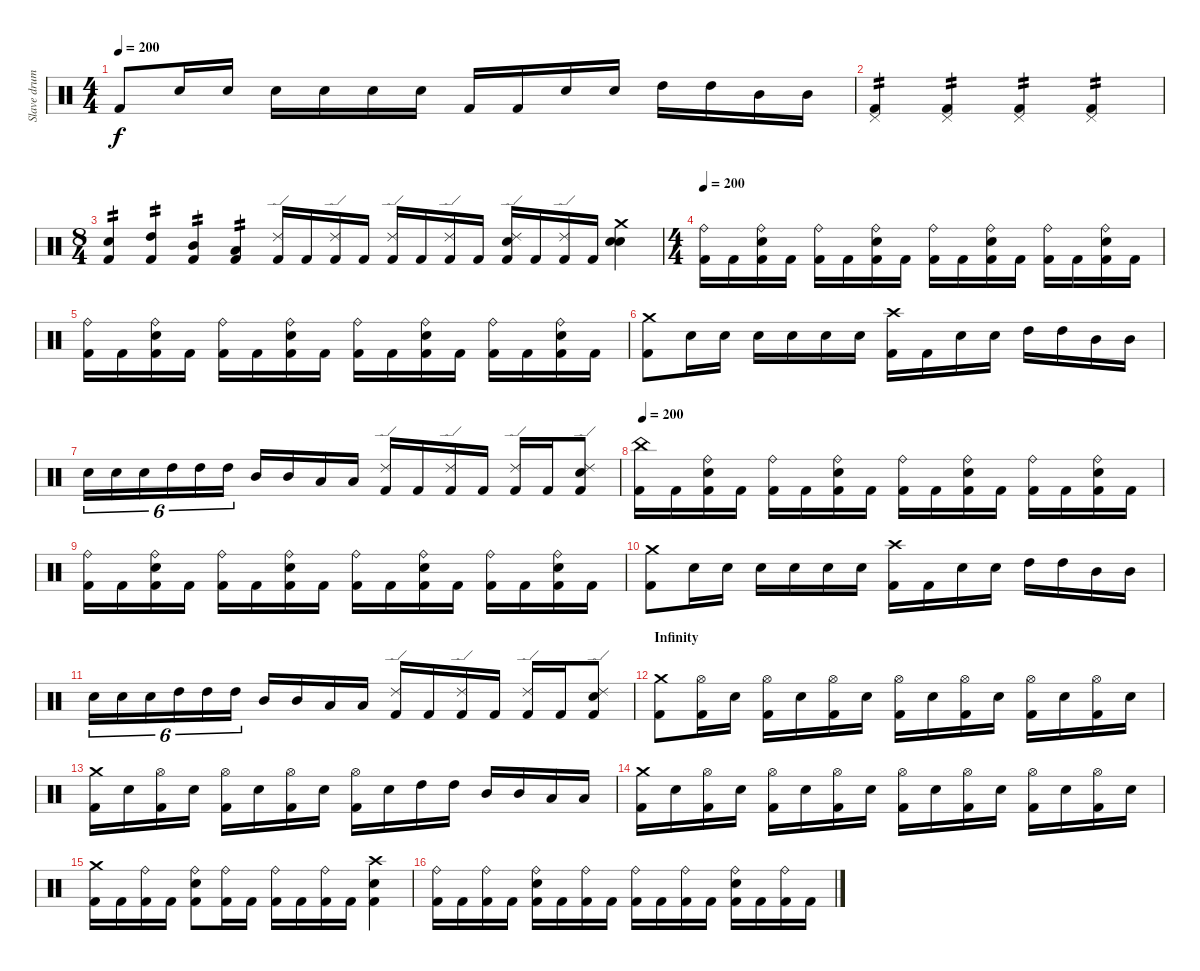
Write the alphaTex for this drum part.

\track ("Slave drum" "Slave drum") {instrument percussion}
\staff {score}
\articulation defaults
\ts (4 4)
\tempo 200
\clef neutral
\ks c "Kick (hit) 2".8{dy f} "Electric Snare (hit)".16 "Electric Snare (hit)".16 "Electric Snare (hit)".16 "Electric Snare (hit)".16 "Electric Snare (hit)".16 "Electric Snare (hit)".16 "Kick (hit) 2".16 "Kick (hit) 2".16 "Electric Snare (hit)".16 "Electric Snare (hit)".16 "High Tom (hit)".16 "High Tom (hit)".16 "Mid Tom (hit)".16 "Mid Tom (hit)".16
|
("Pedal Hi-Hat (hit)" "Kick (hit) 2").4{tp 2} ("Pedal Hi-Hat (hit)" "Kick (hit) 2").4{tp 2} ("Pedal Hi-Hat (hit)" "Kick (hit) 2").4{tp 2} ("Pedal Hi-Hat (hit)" "Kick (hit) 2").4{tp 2} |
\ts (8 4)
("Electric Snare (hit)" "Kick (hit) 2").4{tp 2} ("High Tom (hit)" "Kick (hit) 2").4{tp 2} ("Mid Tom (hit)" "Kick (hit) 2").4{tp 2} ("Low Tom (hit)" "Kick (hit) 2").4{tp 2} ("Ride (edge) 2" "Kick (hit) 2").16 "Kick (hit) 2".16 ("Ride (edge) 2" "Kick (hit) 2").16 "Kick (hit) 2".16 ("Ride (edge) 2" "Kick (hit) 2").16 "Kick (hit) 2".16 ("Ride (edge) 2" "Kick (hit) 2").16 "Kick (hit) 2".16 ("Ride (edge) 2" "Electric Snare (hit)" "Kick (hit) 2").16 "Kick (hit) 2".16 ("Ride (edge) 2" "Kick (hit) 2").16 "Kick (hit) 2".16 ("Crash medium (hit)" "Electric Snare (hit)" "Snare (hit)").4 |
\ts (4 4)
\tempo 200
("Ride (bell)" "Kick (hit) 2").16 "Kick (hit) 2".16 ("Ride (bell)" "Electric Snare (hit)" "Kick (hit) 2").16 "Kick (hit) 2".16 ("Ride (bell)" "Kick (hit) 2").16 "Kick (hit) 2".16 ("Ride (bell)" "Electric Snare (hit)" "Kick (hit) 2").16 "Kick (hit) 2".16 ("Ride (bell)" "Kick (hit) 2").16 "Kick (hit) 2".16 ("Ride (bell)" "Electric Snare (hit)" "Kick (hit) 2").16 "Kick (hit) 2".16 ("Ride (bell)" "Kick (hit) 2").16 "Kick (hit) 2".16 ("Ride (bell)" "Electric Snare (hit)" "Kick (hit) 2").16 "Kick (hit) 2".16 |
("Ride (bell)" "Kick (hit) 2").16 "Kick (hit) 2".16 ("Ride (bell)" "Electric Snare (hit)" "Kick (hit) 2").16 "Kick (hit) 2".16 ("Ride (bell)" "Kick (hit) 2").16 "Kick (hit) 2".16 ("Ride (bell)" "Electric Snare (hit)" "Kick (hit) 2").16 "Kick (hit) 2".16 ("Ride (bell)" "Kick (hit) 2").16 "Kick (hit) 2".16 ("Ride (bell)" "Electric Snare (hit)" "Kick (hit) 2").16 "Kick (hit) 2".16 ("Ride (bell)" "Kick (hit) 2").16 "Kick (hit) 2".16 ("Ride (bell)" "Electric Snare (hit)" "Kick (hit) 2").16 "Kick (hit) 2".16 |
("Crash medium (hit)" "Kick (hit) 2").8 "Electric Snare (hit)".16 "Electric Snare (hit)".16 "Electric Snare (hit)".16 "Electric Snare (hit)".16 "Electric Snare (hit)".16 "Electric Snare (hit)".16 ("Crash high (hit)" "Kick (hit) 2").16 "Kick (hit) 2".16 "Electric Snare (hit)".16 "Electric Snare (hit)".16 "High Tom (hit)".16 "High Tom (hit)".16 "Mid Tom (hit)".16 "Mid Tom (hit)".16 |
"Electric Snare (hit)".16{tu (6 4)} "Electric Snare (hit)".16{tu (6 4)} "Electric Snare (hit)".16{tu (6 4)} "High Tom (hit)".16{tu (6 4)} "High Tom (hit)".16{tu (6 4)} "High Tom (hit)".16{tu (6 4)} "Mid Tom (hit)".16 "Mid Tom (hit)".16 "Low Tom (hit)".16 "Low Tom (hit)".16 ("Ride (edge) 2" "Kick (hit) 2").16 "Kick (hit) 2".16 ("Ride (edge) 2" "Kick (hit) 2").16 "Kick (hit) 2".16 ("Ride (edge) 2" "Kick (hit) 2").16 "Kick (hit) 2".16 ("Ride (edge) 2" "Electric Snare (hit)" "Kick (hit) 2").8 |
\tempo 200
("China (hit)" "Kick (hit) 2").16 "Kick (hit) 2".16 ("Ride (bell)" "Electric Snare (hit)" "Kick (hit) 2").16 "Kick (hit) 2".16 ("Ride (bell)" "Kick (hit) 2").16 "Kick (hit) 2".16 ("Ride (bell)" "Electric Snare (hit)" "Kick (hit) 2").16 "Kick (hit) 2".16 ("Ride (bell)" "Kick (hit) 2").16 "Kick (hit) 2".16 ("Ride (bell)" "Electric Snare (hit)" "Kick (hit) 2").16 "Kick (hit) 2".16 ("Ride (bell)" "Kick (hit) 2").16 "Kick (hit) 2".16 ("Ride (bell)" "Electric Snare (hit)" "Kick (hit) 2").16 "Kick (hit) 2".16 |
("Ride (bell)" "Kick (hit) 2").16 "Kick (hit) 2".16 ("Ride (bell)" "Electric Snare (hit)" "Kick (hit) 2").16 "Kick (hit) 2".16 ("Ride (bell)" "Kick (hit) 2").16 "Kick (hit) 2".16 ("Ride (bell)" "Electric Snare (hit)" "Kick (hit) 2").16 "Kick (hit) 2".16 ("Ride (bell)" "Kick (hit) 2").16 "Kick (hit) 2".16 ("Ride (bell)" "Electric Snare (hit)" "Kick (hit) 2").16 "Kick (hit) 2".16 ("Ride (bell)" "Kick (hit) 2").16 "Kick (hit) 2".16 ("Ride (bell)" "Electric Snare (hit)" "Kick (hit) 2").16 "Kick (hit) 2".16 |
("Crash medium (hit)" "Kick (hit) 2").8 "Electric Snare (hit)".16 "Electric Snare (hit)".16 "Electric Snare (hit)".16 "Electric Snare (hit)".16 "Electric Snare (hit)".16 "Electric Snare (hit)".16 ("Crash high (hit)" "Kick (hit) 2").16 "Kick (hit) 2".16 "Electric Snare (hit)".16 "Electric Snare (hit)".16 "High Tom (hit)".16 "High Tom (hit)".16 "Mid Tom (hit)".16 "Mid Tom (hit)".16 |
"Electric Snare (hit)".16{tu (6 4)} "Electric Snare (hit)".16{tu (6 4)} "Electric Snare (hit)".16{tu (6 4)} "High Tom (hit)".16{tu (6 4)} "High Tom (hit)".16{tu (6 4)} "High Tom (hit)".16{tu (6 4)} "Mid Tom (hit)".16 "Mid Tom (hit)".16 "Low Tom (hit)".16 "Low Tom (hit)".16 ("Ride (edge) 2" "Kick (hit) 2").16 "Kick (hit) 2".16 ("Ride (edge) 2" "Kick (hit) 2").16 "Kick (hit) 2".16 ("Ride (edge) 2" "Kick (hit) 2").16 "Kick (hit) 2".16 ("Ride (edge) 2" "Electric Snare (hit)" "Kick (hit) 2").8 |
\section ("" "Infinity")
("Crash medium (hit)" "Kick (hit) 2").8 ("Hi-Hat (open)" "Kick (hit) 2").16 "Electric Snare (hit)".16 ("Hi-Hat (open)" "Kick (hit) 2").16 "Electric Snare (hit)".16 ("Hi-Hat (open)" "Kick (hit) 2").16 "Electric Snare (hit)".16 ("Hi-Hat (open)" "Kick (hit) 2").16 "Electric Snare (hit)".16 ("Hi-Hat (open)" "Kick (hit) 2").16 "Electric Snare (hit)".16 ("Hi-Hat (open)" "Kick (hit) 2").16 "Electric Snare (hit)".16 ("Hi-Hat (open)" "Kick (hit) 2").16 "Electric Snare (hit)".16 |
("Crash medium (hit)" "Kick (hit) 2").16 "Electric Snare (hit)".16 ("Hi-Hat (open)" "Kick (hit) 2").16 "Electric Snare (hit)".16 ("Hi-Hat (open)" "Kick (hit) 2").16 "Electric Snare (hit)".16 ("Hi-Hat (open)" "Kick (hit) 2").16 "Electric Snare (hit)".16 ("Hi-Hat (open)" "Kick (hit) 2").16 "Electric Snare (hit)".16 "High Tom (hit)".16 "High Tom (hit)".16 "Mid Tom (hit)".16 "Mid Tom (hit)".16 "Low Tom (hit)".16 "Low Tom (hit)".16 |
("Crash medium (hit)" "Kick (hit) 2").16 "Electric Snare (hit)".16 ("Hi-Hat (open)" "Kick (hit) 2").16 "Electric Snare (hit)".16 ("Hi-Hat (open)" "Kick (hit) 2").16 "Electric Snare (hit)".16 ("Hi-Hat (open)" "Kick (hit) 2").16 "Electric Snare (hit)".16 ("Hi-Hat (open)" "Kick (hit) 2").16 "Electric Snare (hit)".16 ("Hi-Hat (open)" "Kick (hit) 2").16 "Electric Snare (hit)".16 ("Hi-Hat (open)" "Kick (hit) 2").16 "Electric Snare (hit)".16 ("Hi-Hat (open)" "Kick (hit) 2").16 "Electric Snare (hit)".16 |
("Crash medium (hit)" "Kick (hit) 2").16 "Kick (hit) 2".16 ("Ride (bell)" "Kick (hit) 2").16 "Kick (hit) 2".16 ("Ride (bell)" "Electric Snare (hit)" "Kick (hit) 2").8 ("Ride (bell)" "Kick (hit) 2").16 "Kick (hit) 2".16 ("Ride (bell)" "Kick (hit) 2").16 "Kick (hit) 2".16 ("Ride (bell)" "Kick (hit) 2").16 "Kick (hit) 2".16 ("Crash high (hit)" "Electric Snare (hit)" "Kick (hit) 2").4 |
("Ride (bell)" "Kick (hit) 2").16 "Kick (hit) 2".16 ("Ride (bell)" "Kick (hit) 2").16 "Kick (hit) 2".16 ("Ride (bell)" "Electric Snare (hit)" "Kick (hit) 2").16 "Kick (hit) 2".16 ("Ride (bell)" "Kick (hit) 2").16 "Kick (hit) 2".16 ("Ride (bell)" "Kick (hit) 2").16 "Kick (hit) 2".16 ("Ride (bell)" "Kick (hit) 2").16 "Kick (hit) 2".16 ("Ride (bell)" "Electric Snare (hit)" "Kick (hit) 2").16 "Kick (hit) 2".16 ("Ride (bell)" "Kick (hit) 2").16 "Kick (hit) 2".16
